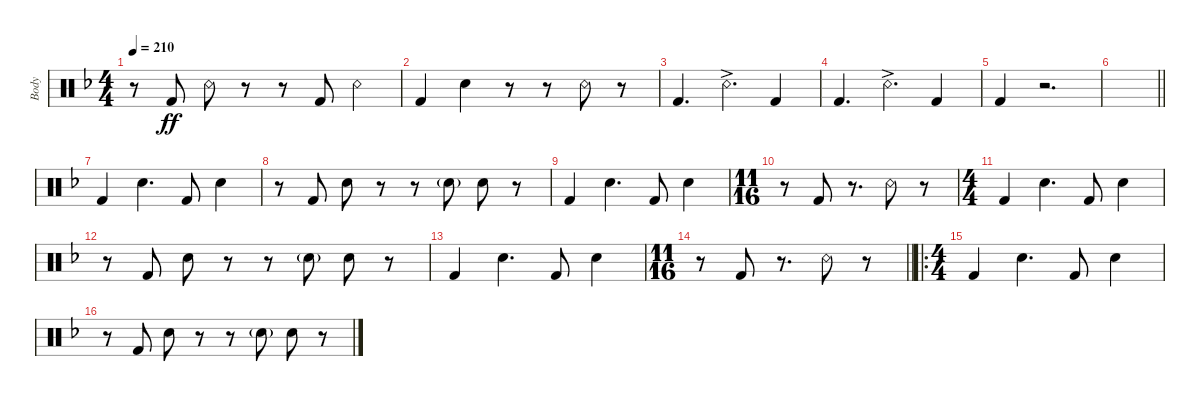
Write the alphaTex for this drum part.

\track ("Body" "Body") {instrument percussion}
\staff {score}
\articulation defaults
\ts (4 4)
\tempo 210
\clef neutral
\ks dminor
r.8{dy ff} "Kick (hit) 2".8 "Snare (rim shot)".8 r.8 r.8 "Kick (hit) 2".8 "Snare (rim shot)".4 |
"Kick (hit) 2".4 "Snare (hit) 2".4 r.8 r.8 "Snare (rim shot)".8 r.8 |
"Kick (hit) 2".4{d} "Snare (rim shot)"{ac}.4{d} "Kick (hit) 2".4 |
"Kick (hit) 2".4{d} "Snare (rim shot)"{ac}.4{d} "Kick (hit) 2".4 |
"Kick (hit) 2".4 r.2{d} |
\barLineRight lightlight
|
"Kick (hit) 2".4 "Snare (hit) 2".4{d} "Kick (hit) 2".8 "Snare (hit) 2".4 |
r.8 "Kick (hit) 2".8 "Snare (hit) 2".8 r.8 r.8 "Snare (hit) 2"{g}.8 "Snare (hit) 2".8 r.8 |
"Kick (hit) 2".4 "Snare (hit) 2".4{d} "Kick (hit) 2".8 "Snare (hit) 2".4 |
\ts (11 16)
r.8 "Kick (hit) 2".8 r.8{d} "Snare (rim shot)".8 r.8 |
\ts (4 4)
"Kick (hit) 2".4 "Snare (hit) 2".4{d} "Kick (hit) 2".8 "Snare (hit) 2".4 |
r.8 "Kick (hit) 2".8 "Snare (hit) 2".8 r.8 r.8 "Snare (hit) 2"{g}.8 "Snare (hit) 2".8 r.8 |
"Kick (hit) 2".4 "Snare (hit) 2".4{d} "Kick (hit) 2".8 "Snare (hit) 2".4 |
\ts (11 16)
\barLineRight lightlight
r.8 "Kick (hit) 2".8 r.8{d} "Snare (rim shot)".8 r.8 |
\ro
\ts (4 4)
"Kick (hit) 2".4 "Snare (hit) 2".4{d} "Kick (hit) 2".8 "Snare (hit) 2".4 |
r.8 "Kick (hit) 2".8 "Snare (hit) 2".8 r.8 r.8 "Snare (hit) 2"{g}.8 "Snare (hit) 2".8 r.8
